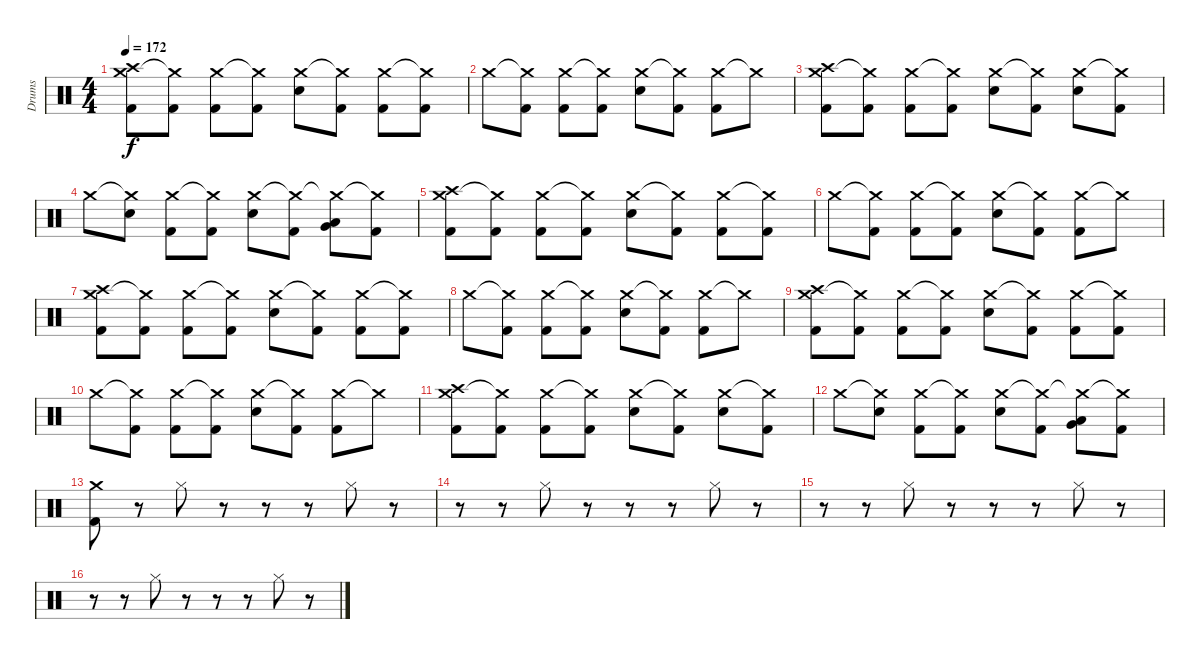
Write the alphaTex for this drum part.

\track ("Drums" "Drums") {instrument percussion}
\staff {score}
\articulation defaults
\ts (4 4)
\tempo 172
\clef neutral
\ks c
("Crash medium (hit)" "Crash high (hit)" "Kick (hit) 2").8{dy f} ("Crash medium (hit)"{t} "Kick (hit) 2").8 ("Crash medium (hit)" "Kick (hit) 2").8 ("Crash medium (hit)"{t} "Kick (hit) 2").8 ("Crash medium (hit)" "Electric Snare (hit)").8 ("Crash medium (hit)"{t} "Kick (hit) 2").8 ("Crash medium (hit)" "Kick (hit) 2").8 ("Crash medium (hit)"{t} "Kick (hit) 2").8 |
"Crash medium (hit)".8 ("Crash medium (hit)"{t} "Kick (hit) 2").8 ("Crash medium (hit)" "Kick (hit) 2").8 ("Crash medium (hit)"{t} "Kick (hit) 2").8 ("Crash medium (hit)" "Electric Snare (hit)").8 ("Crash medium (hit)"{t} "Kick (hit) 2").8 ("Crash medium (hit)" "Kick (hit) 2").8 "Crash medium (hit)"{t}.8 |
("Crash medium (hit)" "Crash high (hit)" "Kick (hit) 2").8 ("Crash medium (hit)"{t} "Kick (hit) 2").8 ("Crash medium (hit)" "Kick (hit) 2").8 ("Crash medium (hit)"{t} "Kick (hit) 2").8 ("Crash medium (hit)" "Electric Snare (hit)").8 ("Crash medium (hit)"{t} "Kick (hit) 2").8 ("Crash medium (hit)" "Electric Snare (hit)").8 ("Crash medium (hit)"{t} "Kick (hit) 2").8 |
"Crash medium (hit)".8 ("Crash medium (hit)"{t} "Electric Snare (hit)").8 ("Crash medium (hit)" "Kick (hit) 2").8 ("Crash medium (hit)"{t} "Kick (hit) 2").8 ("Crash medium (hit)" "Electric Snare (hit)").8 ("Crash medium (hit)"{t} "Kick (hit) 2").8 ("Crash medium (hit)"{t} "Low Floor Tom (hit)" "Very Low Tom (hit)").8 ("Crash medium (hit)"{t} "Kick (hit) 2").8 |
("Crash medium (hit)" "Crash high (hit)" "Kick (hit) 2").8 ("Crash medium (hit)"{t} "Kick (hit) 2").8 ("Crash medium (hit)" "Kick (hit) 2").8 ("Crash medium (hit)"{t} "Kick (hit) 2").8 ("Crash medium (hit)" "Electric Snare (hit)").8 ("Crash medium (hit)"{t} "Kick (hit) 2").8 ("Crash medium (hit)" "Kick (hit) 2").8 ("Crash medium (hit)"{t} "Kick (hit) 2").8 |
"Crash medium (hit)".8 ("Crash medium (hit)"{t} "Kick (hit) 2").8 ("Crash medium (hit)" "Kick (hit) 2").8 ("Crash medium (hit)"{t} "Kick (hit) 2").8 ("Crash medium (hit)" "Electric Snare (hit)").8 ("Crash medium (hit)"{t} "Kick (hit) 2").8 ("Crash medium (hit)" "Kick (hit) 2").8 "Crash medium (hit)"{t}.8 |
("Crash medium (hit)" "Crash high (hit)" "Kick (hit) 2").8 ("Crash medium (hit)"{t} "Kick (hit) 2").8 ("Crash medium (hit)" "Kick (hit) 2").8 ("Crash medium (hit)"{t} "Kick (hit) 2").8 ("Crash medium (hit)" "Electric Snare (hit)").8 ("Crash medium (hit)"{t} "Kick (hit) 2").8 ("Crash medium (hit)" "Kick (hit) 2").8 ("Crash medium (hit)"{t} "Kick (hit) 2").8 |
"Crash medium (hit)".8 ("Crash medium (hit)"{t} "Kick (hit) 2").8 ("Crash medium (hit)" "Kick (hit) 2").8 ("Crash medium (hit)"{t} "Kick (hit) 2").8 ("Crash medium (hit)" "Electric Snare (hit)").8 ("Crash medium (hit)"{t} "Kick (hit) 2").8 ("Crash medium (hit)" "Kick (hit) 2").8 "Crash medium (hit)"{t}.8 |
("Crash medium (hit)" "Crash high (hit)" "Kick (hit) 2").8 ("Crash medium (hit)"{t} "Kick (hit) 2").8 ("Crash medium (hit)" "Kick (hit) 2").8 ("Crash medium (hit)"{t} "Kick (hit) 2").8 ("Crash medium (hit)" "Electric Snare (hit)").8 ("Crash medium (hit)"{t} "Kick (hit) 2").8 ("Crash medium (hit)" "Kick (hit) 2").8 ("Crash medium (hit)"{t} "Kick (hit) 2").8 |
"Crash medium (hit)".8 ("Crash medium (hit)"{t} "Kick (hit) 2").8 ("Crash medium (hit)" "Kick (hit) 2").8 ("Crash medium (hit)"{t} "Kick (hit) 2").8 ("Crash medium (hit)" "Electric Snare (hit)").8 ("Crash medium (hit)"{t} "Kick (hit) 2").8 ("Crash medium (hit)" "Kick (hit) 2").8 "Crash medium (hit)"{t}.8 |
("Crash medium (hit)" "Crash high (hit)" "Kick (hit) 2").8 ("Crash medium (hit)"{t} "Kick (hit) 2").8 ("Crash medium (hit)" "Kick (hit) 2").8 ("Crash medium (hit)"{t} "Kick (hit) 2").8 ("Crash medium (hit)" "Electric Snare (hit)").8 ("Crash medium (hit)"{t} "Kick (hit) 2").8 ("Crash medium (hit)" "Electric Snare (hit)").8 ("Crash medium (hit)"{t} "Kick (hit) 2").8 |
"Crash medium (hit)".8 ("Crash medium (hit)"{t} "Electric Snare (hit)").8 ("Crash medium (hit)" "Kick (hit) 2").8 ("Crash medium (hit)"{t} "Kick (hit) 2").8 ("Crash medium (hit)" "Electric Snare (hit)").8 ("Crash medium (hit)"{t} "Kick (hit) 2").8 ("Crash medium (hit)"{t} "Low Floor Tom (hit)" "Very Low Tom (hit)").8 ("Crash medium (hit)"{t} "Kick (hit) 2").8 |
("Crash medium (hit)" "Kick (hit) 2").8 r.8 "Hi-Hat (closed)".8 r.8 r.8 r.8 "Hi-Hat (closed)".8 r.8 |
r.8 r.8 "Hi-Hat (closed)".8 r.8 r.8 r.8 "Hi-Hat (closed)".8 r.8 |
r.8 r.8 "Hi-Hat (closed)".8 r.8 r.8 r.8 "Hi-Hat (closed)".8 r.8 |
r.8 r.8 "Hi-Hat (closed)".8 r.8 r.8 r.8 "Hi-Hat (closed)".8 r.8
